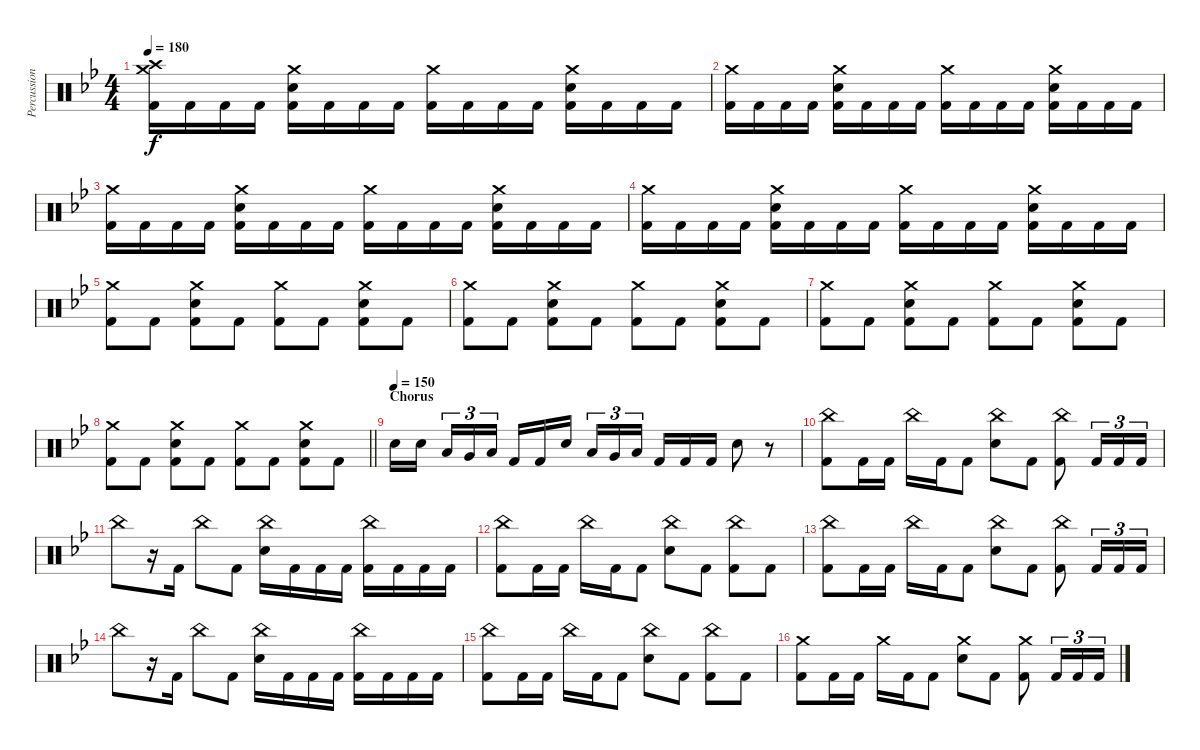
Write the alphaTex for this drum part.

\track ("Percussion" "Percussion") {instrument percussion}
\staff {score}
\articulation defaults
\ts (4 4)
\tempo 180
\clef neutral
\ks bb
("Crash medium (hit)" "Crash high (hit)" "Kick (hit) 2").16{dy f} "Kick (hit) 2".16 "Kick (hit) 2".16 "Kick (hit) 2".16 ("Crash medium (hit)" "Electric Snare (hit)" "Kick (hit) 2").16 "Kick (hit) 2".16 "Kick (hit) 2".16 "Kick (hit) 2".16 ("Crash medium (hit)" "Kick (hit) 2").16 "Kick (hit) 2".16 "Kick (hit) 2".16 "Kick (hit) 2".16 ("Crash medium (hit)" "Electric Snare (hit)" "Kick (hit) 2").16 "Kick (hit) 2".16 "Kick (hit) 2".16 "Kick (hit) 2".16 |
("Crash medium (hit)" "Kick (hit) 2").16 "Kick (hit) 2".16 "Kick (hit) 2".16 "Kick (hit) 2".16 ("Crash medium (hit)" "Electric Snare (hit)" "Kick (hit) 2").16 "Kick (hit) 2".16 "Kick (hit) 2".16 "Kick (hit) 2".16 ("Crash medium (hit)" "Kick (hit) 2").16 "Kick (hit) 2".16 "Kick (hit) 2".16 "Kick (hit) 2".16 ("Crash medium (hit)" "Electric Snare (hit)" "Kick (hit) 2").16 "Kick (hit) 2".16 "Kick (hit) 2".16 "Kick (hit) 2".16 |
("Crash medium (hit)" "Kick (hit) 2").16 "Kick (hit) 2".16 "Kick (hit) 2".16 "Kick (hit) 2".16 ("Crash medium (hit)" "Electric Snare (hit)" "Kick (hit) 2").16 "Kick (hit) 2".16 "Kick (hit) 2".16 "Kick (hit) 2".16 ("Crash medium (hit)" "Kick (hit) 2").16 "Kick (hit) 2".16 "Kick (hit) 2".16 "Kick (hit) 2".16 ("Crash medium (hit)" "Electric Snare (hit)" "Kick (hit) 2").16 "Kick (hit) 2".16 "Kick (hit) 2".16 "Kick (hit) 2".16 |
("Crash medium (hit)" "Kick (hit) 2").16 "Kick (hit) 2".16 "Kick (hit) 2".16 "Kick (hit) 2".16 ("Crash medium (hit)" "Electric Snare (hit)" "Kick (hit) 2").16 "Kick (hit) 2".16 "Kick (hit) 2".16 "Kick (hit) 2".16 ("Crash medium (hit)" "Kick (hit) 2").16 "Kick (hit) 2".16 "Kick (hit) 2".16 "Kick (hit) 2".16 ("Crash medium (hit)" "Electric Snare (hit)" "Kick (hit) 2").16 "Kick (hit) 2".16 "Kick (hit) 2".16 "Kick (hit) 2".16 |
("Crash medium (hit)" "Kick (hit) 2").8 "Kick (hit) 2".8 ("Crash medium (hit)" "Electric Snare (hit)" "Kick (hit) 2").8 "Kick (hit) 2".8 ("Crash medium (hit)" "Kick (hit) 2").8 "Kick (hit) 2".8 ("Crash medium (hit)" "Electric Snare (hit)" "Kick (hit) 2").8 "Kick (hit) 2".8 |
("Crash medium (hit)" "Kick (hit) 2").8 "Kick (hit) 2".8 ("Crash medium (hit)" "Electric Snare (hit)" "Kick (hit) 2").8 "Kick (hit) 2".8 ("Crash medium (hit)" "Kick (hit) 2").8 "Kick (hit) 2".8 ("Crash medium (hit)" "Electric Snare (hit)" "Kick (hit) 2").8 "Kick (hit) 2".8 |
("Crash medium (hit)" "Kick (hit) 2").8 "Kick (hit) 2".8 ("Crash medium (hit)" "Electric Snare (hit)" "Kick (hit) 2").8 "Kick (hit) 2".8 ("Crash medium (hit)" "Kick (hit) 2").8 "Kick (hit) 2".8 ("Crash medium (hit)" "Electric Snare (hit)" "Kick (hit) 2").8 "Kick (hit) 2".8 |
\barLineRight lightlight
("Crash medium (hit)" "Kick (hit) 2").8 "Kick (hit) 2".8 ("Crash medium (hit)" "Electric Snare (hit)" "Kick (hit) 2").8 "Kick (hit) 2".8 ("Crash medium (hit)" "Kick (hit) 2").8 "Kick (hit) 2".8 ("Crash medium (hit)" "Electric Snare (hit)" "Kick (hit) 2").8 "Kick (hit) 2".8 |
\section ("" "Chorus")
\tempo (150)
"Electric Snare (hit)".16 "Electric Snare (hit)".16{beam splitsecondary} "Low Tom (hit)".16{tu (3 2)} "Very Low Tom (hit)".16{tu (3 2)} "Low Floor Tom (hit)".16{tu (3 2)} "Kick (hit) 2".16 "Kick (hit) 2".16 "Electric Snare (hit)".16{beam splitsecondary} "Low Tom (hit)".16{tu (3 2)} "Very Low Tom (hit)".16{tu (3 2)} "Low Floor Tom (hit)".16{tu (3 2) beam splitsecondary} "Kick (hit) 2".16 "Kick (hit) 2".16 "Kick (hit) 2".16 "Electric Snare (hit)".8 r.8 |
("China (hit)" "Kick (hit) 2").8 "Kick (hit) 2".16 "Kick (hit) 2".16 "China (hit)".16 "Kick (hit) 2".16 "Kick (hit) 2".8 ("China (hit)" "Electric Snare (hit)").8 "Kick (hit) 2".8 ("China (hit)" "Kick (hit) 2").8 "Kick (hit) 2".16{tu (3 2)} "Kick (hit) 2".16{tu (3 2)} "Kick (hit) 2".16{tu (3 2)} |
"China (hit)".8 r.16 "Kick (hit) 2".16 "China (hit)".8 "Kick (hit) 2".8 ("China (hit)" "Electric Snare (hit)").16 "Kick (hit) 2".16 "Kick (hit) 2".16 "Kick (hit) 2".16 ("China (hit)" "Kick (hit) 2").16 "Kick (hit) 2".16 "Kick (hit) 2".16 "Kick (hit) 2".16 |
("China (hit)" "Kick (hit) 2").8 "Kick (hit) 2".16 "Kick (hit) 2".16 "China (hit)".16 "Kick (hit) 2".16 "Kick (hit) 2".8 ("China (hit)" "Electric Snare (hit)").8 "Kick (hit) 2".8 ("China (hit)" "Kick (hit) 2").8 "Kick (hit) 2".8 |
("China (hit)" "Kick (hit) 2").8 "Kick (hit) 2".16 "Kick (hit) 2".16 "China (hit)".16 "Kick (hit) 2".16 "Kick (hit) 2".8 ("China (hit)" "Electric Snare (hit)").8 "Kick (hit) 2".8 ("China (hit)" "Kick (hit) 2").8 "Kick (hit) 2".16{tu (3 2)} "Kick (hit) 2".16{tu (3 2)} "Kick (hit) 2".16{tu (3 2)} |
"China (hit)".8 r.16 "Kick (hit) 2".16 "China (hit)".8 "Kick (hit) 2".8 ("China (hit)" "Electric Snare (hit)").16 "Kick (hit) 2".16 "Kick (hit) 2".16 "Kick (hit) 2".16 ("China (hit)" "Kick (hit) 2").16 "Kick (hit) 2".16 "Kick (hit) 2".16 "Kick (hit) 2".16 |
("China (hit)" "Kick (hit) 2").8 "Kick (hit) 2".16 "Kick (hit) 2".16 "China (hit)".16 "Kick (hit) 2".16 "Kick (hit) 2".8 ("China (hit)" "Electric Snare (hit)").8 "Kick (hit) 2".8 ("China (hit)" "Kick (hit) 2").8 "Kick (hit) 2".8 |
("Crash medium (hit)" "Kick (hit) 2").8 "Kick (hit) 2".16 "Kick (hit) 2".16 "Crash medium (hit)".16 "Kick (hit) 2".16 "Kick (hit) 2".8 ("Crash medium (hit)" "Electric Snare (hit)").8 "Kick (hit) 2".8 ("Crash medium (hit)" "Kick (hit) 2").8 "Kick (hit) 2".16{tu (3 2)} "Kick (hit) 2".16{tu (3 2)} "Kick (hit) 2".16{tu (3 2)}
